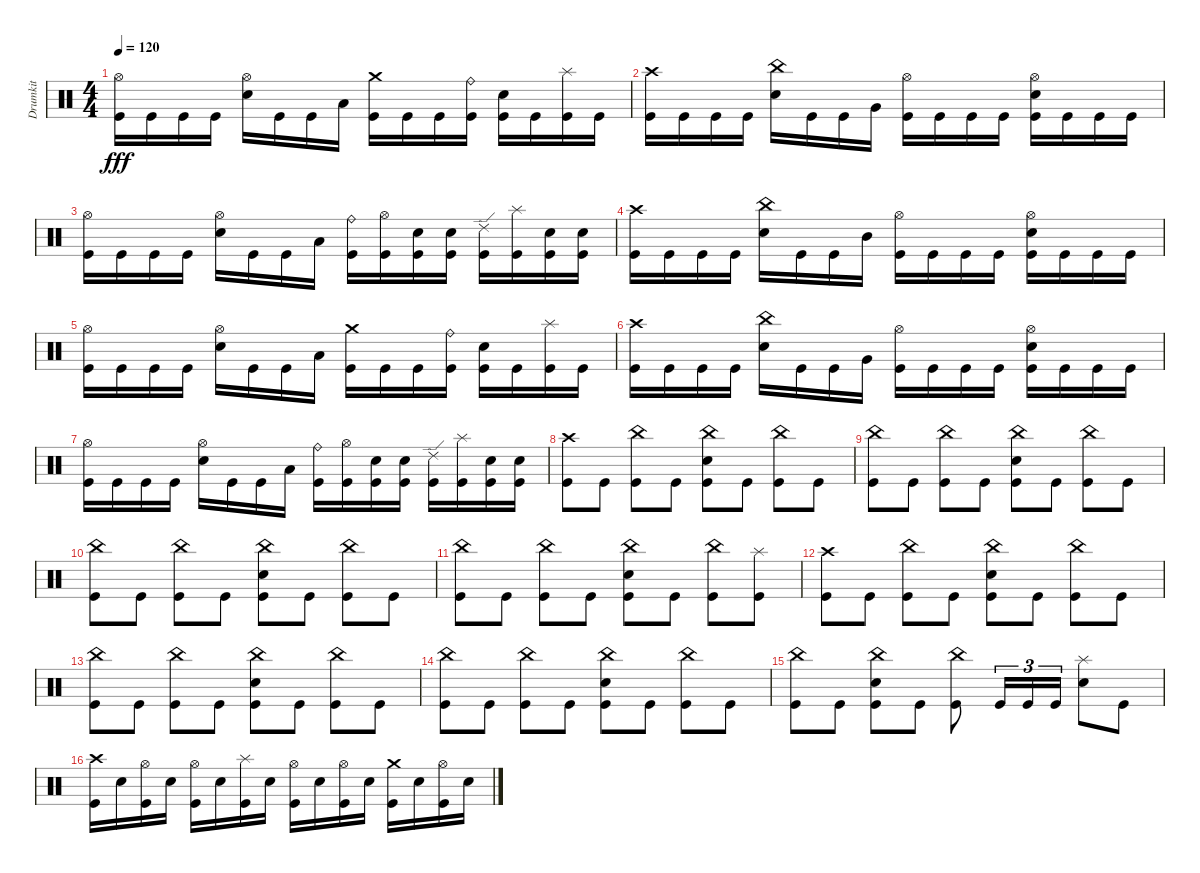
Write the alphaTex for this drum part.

\track ("Drumkit" "Drumkit") {instrument percussion}
\staff {score}
\articulation defaults
\ts (4 4)
\tempo 120
\clef neutral
\ks c
("Hi-Hat (open)" "Kick (hit)").16{dy fff} "Kick (hit)".16 "Kick (hit)".16 "Kick (hit)".16 ("Hi-Hat (open)" "Snare (hit) 2").16 "Kick (hit)".16 "Kick (hit)".16 "Low Tom (hit)".16 ("Crash medium (hit)" "Kick (hit)").16 "Kick (hit)".16 "Kick (hit)".16 ("Ride (bell)" "Kick (hit)").16 ("Snare (hit) 2" "Kick (hit)").16 "Kick (hit)".16 ("Splash (hit)" "Kick (hit)").16 "Kick (hit)".16 |
("Crash high (hit)" "Kick (hit)").16 "Kick (hit)".16 "Kick (hit)".16 "Kick (hit)".16 ("China (hit)" "Snare (hit) 2").16 "Kick (hit)".16 "Kick (hit)".16 "Very Low Tom (hit)".16 ("Hi-Hat (open)" "Kick (hit)").16 "Kick (hit)".16 "Kick (hit)".16 "Kick (hit)".16 ("Hi-Hat (open)" "Snare (hit) 2" "Kick (hit)").16 "Kick (hit)".16 "Kick (hit)".16 "Kick (hit)".16 |
("Hi-Hat (open)" "Kick (hit)").16 "Kick (hit)".16 "Kick (hit)".16 "Kick (hit)".16 ("Hi-Hat (open)" "Snare (hit) 2").16 "Kick (hit)".16 "Kick (hit)".16 "Low Floor Tom (hit)".16 ("Ride (bell)" "Kick (hit)").16 ("Hi-Hat (open)" "Kick (hit)").16 ("Snare (hit) 2" "Kick (hit)").16 ("Snare (hit) 2" "Kick (hit)").16 ("Ride (edge) 2" "Kick (hit)").16 ("Splash (hit)" "Kick (hit)").16 ("Snare (hit) 2" "Kick (hit)").16 ("Snare (hit) 2" "Kick (hit)").16 |
("Crash high (hit)" "Kick (hit)").16 "Kick (hit)".16 "Kick (hit)".16 "Kick (hit)".16 ("China (hit)" "Snare (hit) 2").16 "Kick (hit)".16 "Kick (hit)".16 "Mid Tom (hit)".16 ("Hi-Hat (open)" "Kick (hit)").16 "Kick (hit)".16 "Kick (hit)".16 "Kick (hit)".16 ("Hi-Hat (open)" "Snare (hit) 2" "Kick (hit)").16 "Kick (hit)".16 "Kick (hit)".16 "Kick (hit)".16 |
("Hi-Hat (open)" "Kick (hit)").16 "Kick (hit)".16 "Kick (hit)".16 "Kick (hit)".16 ("Hi-Hat (open)" "Snare (hit) 2").16 "Kick (hit)".16 "Kick (hit)".16 "Low Tom (hit)".16 ("Crash medium (hit)" "Kick (hit)").16 "Kick (hit)".16 "Kick (hit)".16 ("Ride (bell)" "Kick (hit)").16 ("Snare (hit) 2" "Kick (hit)").16 "Kick (hit)".16 ("Splash (hit)" "Kick (hit)").16 "Kick (hit)".16 |
("Crash high (hit)" "Kick (hit)").16 "Kick (hit)".16 "Kick (hit)".16 "Kick (hit)".16 ("China (hit)" "Snare (hit) 2").16 "Kick (hit)".16 "Kick (hit)".16 "Very Low Tom (hit)".16 ("Hi-Hat (open)" "Kick (hit)").16 "Kick (hit)".16 "Kick (hit)".16 "Kick (hit)".16 ("Hi-Hat (open)" "Snare (hit) 2" "Kick (hit)").16 "Kick (hit)".16 "Kick (hit)".16 "Kick (hit)".16 |
("Hi-Hat (open)" "Kick (hit)").16 "Kick (hit)".16 "Kick (hit)".16 "Kick (hit)".16 ("Hi-Hat (open)" "Snare (hit) 2").16 "Kick (hit)".16 "Kick (hit)".16 "Low Floor Tom (hit)".16 ("Ride (bell)" "Kick (hit)").16 ("Hi-Hat (open)" "Kick (hit)").16 ("Snare (hit) 2" "Kick (hit)").16 ("Snare (hit) 2" "Kick (hit)").16 ("Ride (edge) 2" "Kick (hit)").16 ("Splash (hit)" "Kick (hit)").16 ("Snare (hit) 2" "Kick (hit)").16 ("Snare (hit) 2" "Kick (hit)").16 |
("Crash high (hit)" "Kick (hit)").8 "Kick (hit)".8 ("China (hit)" "Kick (hit)").8 "Kick (hit)".8 ("China (hit)" "Snare (hit) 2" "Kick (hit)").8 "Kick (hit)".8 ("China (hit)" "Kick (hit)").8 "Kick (hit)".8 |
("China (hit)" "Kick (hit)").8 "Kick (hit)".8 ("China (hit)" "Kick (hit)").8 "Kick (hit)".8 ("China (hit)" "Snare (hit) 2" "Kick (hit)").8 "Kick (hit)".8 ("China (hit)" "Kick (hit)").8 "Kick (hit)".8 |
("China (hit)" "Kick (hit)").8 "Kick (hit)".8 ("China (hit)" "Kick (hit)").8 "Kick (hit)".8 ("China (hit)" "Snare (hit) 2" "Kick (hit)").8 "Kick (hit)".8 ("China (hit)" "Kick (hit)").8 "Kick (hit)".8 |
("China (hit)" "Kick (hit)").8 "Kick (hit)".8 ("China (hit)" "Kick (hit)").8 "Kick (hit)".8 ("China (hit)" "Snare (hit) 2" "Kick (hit)").8 "Kick (hit)".8 ("China (hit)" "Kick (hit)").8 ("Splash (hit)" "Kick (hit)").8 |
("Crash high (hit)" "Kick (hit)").8 "Kick (hit)".8 ("China (hit)" "Kick (hit)").8 "Kick (hit)".8 ("China (hit)" "Snare (hit) 2" "Kick (hit)").8 "Kick (hit)".8 ("China (hit)" "Kick (hit)").8 "Kick (hit)".8 |
("China (hit)" "Kick (hit)").8 "Kick (hit)".8 ("China (hit)" "Kick (hit)").8 "Kick (hit)".8 ("China (hit)" "Snare (hit) 2" "Kick (hit)").8 "Kick (hit)".8 ("China (hit)" "Kick (hit)").8 "Kick (hit)".8 |
("China (hit)" "Kick (hit)").8 "Kick (hit)".8 ("China (hit)" "Kick (hit)").8 "Kick (hit)".8 ("China (hit)" "Snare (hit) 2" "Kick (hit)").8 "Kick (hit)".8 ("China (hit)" "Kick (hit)").8 "Kick (hit)".8 |
("China (hit)" "Kick (hit)").8 "Kick (hit)".8 ("China (hit)" "Snare (hit) 2" "Kick (hit)").8 "Kick (hit)".8 ("China (hit)" "Kick (hit)").8 "Kick (hit)".16{tu (3 2)} "Kick (hit)".16{tu (3 2)} "Kick (hit)".16{tu (3 2)} ("Splash (hit)" "Snare (hit) 2").8 "Kick (hit)".8 |
("Crash high (hit)" "Kick (hit)").16 "Snare (hit) 2".16 ("Hi-Hat (open)" "Kick (hit)").16 "Snare (hit) 2".16 ("Hi-Hat (open)" "Kick (hit)").16 "Snare (hit) 2".16 ("Splash (hit)" "Kick (hit)").16 "Snare (hit) 2".16 ("Hi-Hat (open)" "Kick (hit)").16 "Snare (hit) 2".16 ("Hi-Hat (open)" "Kick (hit)").16 "Snare (hit) 2".16 ("Crash medium (hit)" "Kick (hit)").16 "Snare (hit) 2".16 ("Hi-Hat (open)" "Kick (hit)").16 "Snare (hit) 2".16
